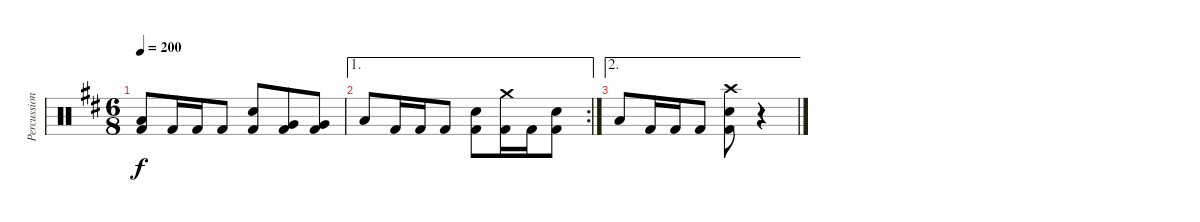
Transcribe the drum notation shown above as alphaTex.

\track ("Percussion" "Percussion") {instrument percussion}
\staff {score}
\articulation defaults
\ts (6 8)
\tempo 200
\clef neutral
\ks d
("Low Floor Tom (hit)" "Kick (hit) 2").8{dy f} "Kick (hit) 2".16 "Kick (hit) 2".16 "Kick (hit) 2".8 ("Snare (hit) 2" "Kick (hit) 2").8 ("Very Low Tom (hit)" "Kick (hit) 2").8 ("Very Low Tom (hit)" "Kick (hit) 2").8 |
\ae 1
\rc 2 "Low Floor Tom (hit)".8 "Kick (hit) 2".16 "Kick (hit) 2".16 "Kick (hit) 2".8
("Snare (hit) 2" "Kick (hit) 2").8 ("Crash medium (hit)" "Kick (hit) 2").16 "Kick (hit) 2".16 ("Snare (hit) 2" "Kick (hit) 2").8 |
\ae 2 "Low Floor Tom (hit)".8 "Kick (hit) 2".16 "Kick (hit) 2".16 "Kick (hit) 2".8
("Crash high (hit)" "Snare (hit) 2" "Kick (hit) 2").8 r.4
